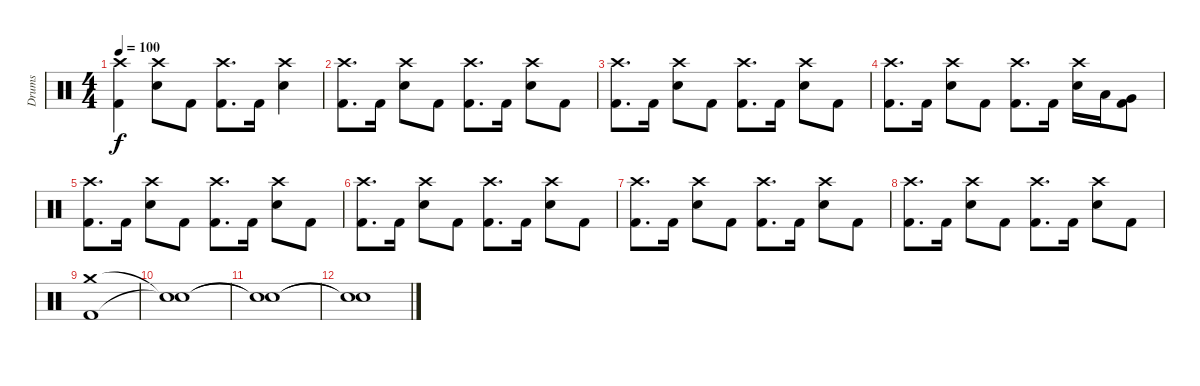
\track ("Drums" "Drums") {instrument percussion}
\staff {score}
\articulation defaults
\ts (4 4)
\tempo 100
\clef neutral
\ks c
("Crash high (hit)" "Kick (hit) 2").4{dy f} ("Crash high (hit)" "Snare (hit) 2").8 "Kick (hit) 2".8 ("Crash high (hit)" "Kick (hit) 2").8{d} "Kick (hit) 2".16 ("Crash high (hit)" "Snare (hit) 2").4 |
("Crash high (hit)" "Kick (hit) 2").8{d} "Kick (hit) 2".16 ("Crash high (hit)" "Snare (hit) 2").8 "Kick (hit) 2".8 ("Crash high (hit)" "Kick (hit) 2").8{d} "Kick (hit) 2".16 ("Crash high (hit)" "Snare (hit) 2").8 "Kick (hit) 2".8 |
("Crash high (hit)" "Kick (hit) 2").8{d} "Kick (hit) 2".16 ("Crash high (hit)" "Snare (hit) 2").8 "Kick (hit) 2".8 ("Crash high (hit)" "Kick (hit) 2").8{d} "Kick (hit) 2".16 ("Crash high (hit)" "Snare (hit) 2").8 "Kick (hit) 2".8 |
("Crash high (hit)" "Kick (hit) 2").8{d} "Kick (hit) 2".16 ("Crash high (hit)" "Snare (hit) 2").8 "Kick (hit) 2".8 ("Crash high (hit)" "Kick (hit) 2").8{d} "Kick (hit) 2".16 ("Crash high (hit)" "Snare (hit) 2").16 "Low Tom (hit)".16 ("Very Low Tom (hit)" "Kick (hit) 2").8 |
("Crash high (hit)" "Kick (hit) 2").8{d} "Kick (hit) 2".16 ("Crash high (hit)" "Snare (hit) 2").8 "Kick (hit) 2".8 ("Crash high (hit)" "Kick (hit) 2").8{d} "Kick (hit) 2".16 ("Crash high (hit)" "Snare (hit) 2").8 "Kick (hit) 2".8 |
("Crash high (hit)" "Kick (hit) 2").8{d} "Kick (hit) 2".16 ("Crash high (hit)" "Snare (hit) 2").8 "Kick (hit) 2".8 ("Crash high (hit)" "Kick (hit) 2").8{d} "Kick (hit) 2".16 ("Crash high (hit)" "Snare (hit) 2").8 "Kick (hit) 2".8 |
("Crash high (hit)" "Kick (hit) 2").8{d} "Kick (hit) 2".16 ("Crash high (hit)" "Snare (hit) 2").8 "Kick (hit) 2".8 ("Crash high (hit)" "Kick (hit) 2").8{d} "Kick (hit) 2".16 ("Crash high (hit)" "Snare (hit) 2").8 "Kick (hit) 2".8 |
("Crash high (hit)" "Kick (hit) 2").8{d} "Kick (hit) 2".16 ("Crash high (hit)" "Snare (hit) 2").8 "Kick (hit) 2".8 ("Crash high (hit)" "Kick (hit) 2").8{d} "Kick (hit) 2".16 ("Crash high (hit)" "Snare (hit) 2").8 "Kick (hit) 2".8 |
("Crash medium (hit)" "Kick (hit) 2").1 |
("Snare (hit)"{t} "Snare (hit)"{t}).1 |
("Snare (hit)"{t} "Snare (hit)"{t}).1 |
("Snare (hit)"{t} "Snare (hit)"{t}).1
